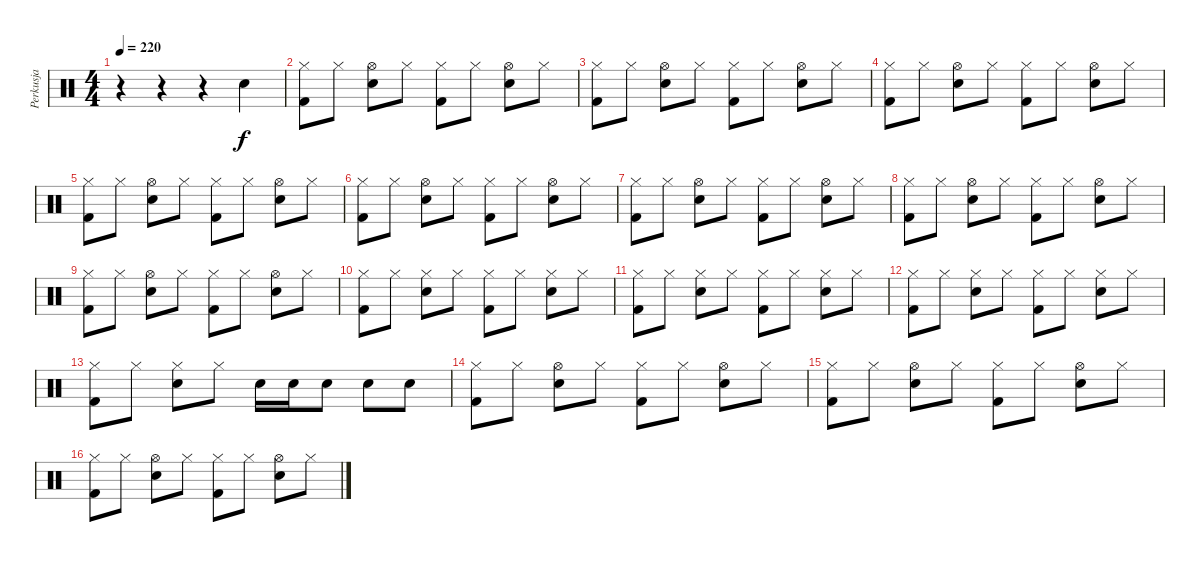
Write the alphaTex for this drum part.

\track ("Perkusja" "Perkusja") {instrument percussion}
\staff {score}
\articulation defaults
\ts (4 4)
\tempo 220
\clef neutral
\ks c
r.4{dy f} r.4 r.4 "Snare (hit) 2".4 |
("Hi-Hat (closed)" "Kick (hit) 2").8 "Hi-Hat (closed)".8 ("Hi-Hat (open)" "Snare (hit) 2").8 "Hi-Hat (closed)".8 ("Hi-Hat (closed)" "Kick (hit) 2").8 "Hi-Hat (closed)".8 ("Hi-Hat (open)" "Snare (hit) 2").8 "Hi-Hat (closed)".8 |
("Hi-Hat (closed)" "Kick (hit) 2").8 "Hi-Hat (closed)".8 ("Hi-Hat (open)" "Snare (hit) 2").8 "Hi-Hat (closed)".8 ("Hi-Hat (closed)" "Kick (hit) 2").8 "Hi-Hat (closed)".8 ("Hi-Hat (open)" "Snare (hit) 2").8 "Hi-Hat (closed)".8 |
("Hi-Hat (closed)" "Kick (hit) 2").8 "Hi-Hat (closed)".8 ("Hi-Hat (open)" "Snare (hit) 2").8 "Hi-Hat (closed)".8 ("Hi-Hat (closed)" "Kick (hit) 2").8 "Hi-Hat (closed)".8 ("Hi-Hat (open)" "Snare (hit) 2").8 "Hi-Hat (closed)".8 |
("Hi-Hat (closed)" "Kick (hit) 2").8 "Hi-Hat (closed)".8 ("Hi-Hat (open)" "Snare (hit) 2").8 "Hi-Hat (closed)".8 ("Hi-Hat (closed)" "Kick (hit) 2").8 "Hi-Hat (closed)".8 ("Hi-Hat (open)" "Snare (hit) 2").8 "Hi-Hat (closed)".8 |
("Hi-Hat (closed)" "Kick (hit) 2").8 "Hi-Hat (closed)".8 ("Hi-Hat (open)" "Snare (hit) 2").8 "Hi-Hat (closed)".8 ("Hi-Hat (closed)" "Kick (hit) 2").8 "Hi-Hat (closed)".8 ("Hi-Hat (open)" "Snare (hit) 2").8 "Hi-Hat (closed)".8 |
("Hi-Hat (closed)" "Kick (hit) 2").8 "Hi-Hat (closed)".8 ("Hi-Hat (open)" "Snare (hit) 2").8 "Hi-Hat (closed)".8 ("Hi-Hat (closed)" "Kick (hit) 2").8 "Hi-Hat (closed)".8 ("Hi-Hat (open)" "Snare (hit) 2").8 "Hi-Hat (closed)".8 |
("Hi-Hat (closed)" "Kick (hit) 2").8 "Hi-Hat (closed)".8 ("Hi-Hat (open)" "Snare (hit) 2").8 "Hi-Hat (closed)".8 ("Hi-Hat (closed)" "Kick (hit) 2").8 "Hi-Hat (closed)".8 ("Hi-Hat (open)" "Snare (hit) 2").8 "Hi-Hat (closed)".8 |
("Hi-Hat (closed)" "Kick (hit) 2").8 "Hi-Hat (closed)".8 ("Hi-Hat (open)" "Snare (hit) 2").8 "Hi-Hat (closed)".8 ("Hi-Hat (closed)" "Kick (hit) 2").8 "Hi-Hat (closed)".8 ("Hi-Hat (open)" "Snare (hit) 2").8 "Hi-Hat (closed)".8 |
("Hi-Hat (closed)" "Kick (hit) 2").8 "Hi-Hat (closed)".8 ("Hi-Hat (closed)" "Snare (hit) 2").8 "Hi-Hat (closed)".8 ("Hi-Hat (closed)" "Kick (hit) 2").8 "Hi-Hat (closed)".8 ("Hi-Hat (closed)" "Snare (hit) 2").8 "Hi-Hat (closed)".8 |
("Hi-Hat (closed)" "Kick (hit) 2").8 "Hi-Hat (closed)".8 ("Hi-Hat (closed)" "Snare (hit) 2").8 "Hi-Hat (closed)".8 ("Hi-Hat (closed)" "Kick (hit) 2").8 "Hi-Hat (closed)".8 ("Hi-Hat (closed)" "Snare (hit) 2").8 "Hi-Hat (closed)".8 |
("Hi-Hat (closed)" "Kick (hit) 2").8 "Hi-Hat (closed)".8 ("Hi-Hat (closed)" "Snare (hit) 2").8 "Hi-Hat (closed)".8 ("Hi-Hat (closed)" "Kick (hit) 2").8 "Hi-Hat (closed)".8 ("Hi-Hat (closed)" "Snare (hit) 2").8 "Hi-Hat (closed)".8 |
("Hi-Hat (closed)" "Kick (hit) 2").8 "Hi-Hat (closed)".8 ("Hi-Hat (closed)" "Snare (hit) 2").8 "Hi-Hat (closed)".8 "Snare (hit) 2".16 "Snare (hit) 2".16 "Snare (hit) 2".8 "Snare (hit) 2".8 "Snare (hit) 2".8 |
("Hi-Hat (closed)" "Kick (hit) 2").8 "Hi-Hat (closed)".8 ("Hi-Hat (open)" "Snare (hit) 2").8 "Hi-Hat (closed)".8 ("Hi-Hat (closed)" "Kick (hit) 2").8 "Hi-Hat (closed)".8 ("Hi-Hat (open)" "Snare (hit) 2").8 "Hi-Hat (closed)".8 |
("Hi-Hat (closed)" "Kick (hit) 2").8 "Hi-Hat (closed)".8 ("Hi-Hat (open)" "Snare (hit) 2").8 "Hi-Hat (closed)".8 ("Hi-Hat (closed)" "Kick (hit) 2").8 "Hi-Hat (closed)".8 ("Hi-Hat (open)" "Snare (hit) 2").8 "Hi-Hat (closed)".8 |
("Hi-Hat (closed)" "Kick (hit) 2").8 "Hi-Hat (closed)".8 ("Hi-Hat (open)" "Snare (hit) 2").8 "Hi-Hat (closed)".8 ("Hi-Hat (closed)" "Kick (hit) 2").8 "Hi-Hat (closed)".8 ("Hi-Hat (open)" "Snare (hit) 2").8 "Hi-Hat (closed)".8
